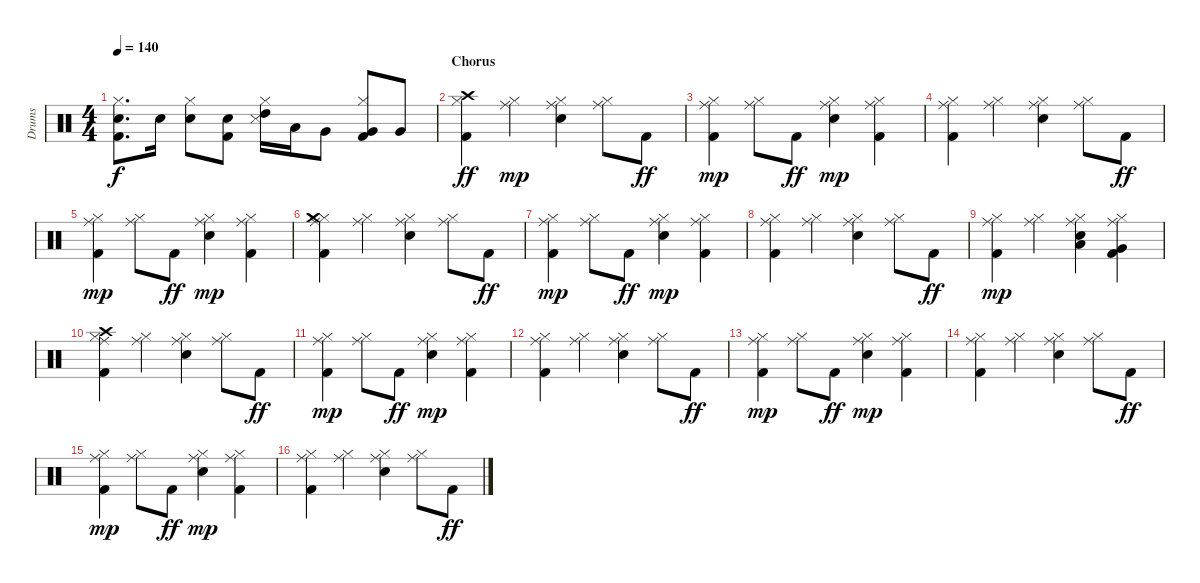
\track ("Drums" "Drums") {instrument percussion}
\staff {score}
\articulation defaults
\ts (4 4)
\tempo 140
\clef neutral
\ks c
("Kick (hit) 2" "Snare (hit) 2" "Hi-Hat (closed)").8{d dy f} "Snare (hit) 2".16 ("Snare (hit) 2" "Hi-Hat (closed)").8 ("Kick (hit) 2" "Snare (hit) 2").8 ("Snare (side stick) 3" "Hi-Hat (closed)" "High Tom (hit)").16 "Low Tom (hit)".16 "Very Low Tom (hit)".8 ("Kick (hit) 2" "Hi-Hat (closed)" "Very Low Tom (hit)").8 "Very Low Tom (hit)".8 |
\section ("" "Chorus")
("Kick (hit) 2" "Hi-Hat (closed)" "Crash high (hit)").4{dy ff} ("Hi-Hat (closed)" "Ride (middle)").4{dy mp} ("Snare (hit) 2" "Hi-Hat (closed)" "Ride (middle)").4 ("Hi-Hat (closed)" "Ride (middle)").8 "Kick (hit) 2".8{dy ff} |
("Kick (hit) 2" "Hi-Hat (closed)" "Ride (middle)").4{dy mp} ("Hi-Hat (closed)" "Ride (middle)").8 "Kick (hit) 2".8{dy ff} ("Snare (hit) 2" "Hi-Hat (closed)" "Ride (middle)").4{dy mp} ("Kick (hit) 2" "Hi-Hat (closed)" "Ride (middle)").4 |
("Kick (hit) 2" "Hi-Hat (closed)" "Ride (middle)").4 ("Hi-Hat (closed)" "Ride (middle)").4 ("Snare (hit) 2" "Hi-Hat (closed)" "Ride (middle)").4 ("Hi-Hat (closed)" "Ride (middle)").8 "Kick (hit) 2".8{dy ff} |
("Kick (hit) 2" "Hi-Hat (closed)" "Ride (middle)").4{dy mp} ("Hi-Hat (closed)" "Ride (middle)").8 "Kick (hit) 2".8{dy ff} ("Snare (hit) 2" "Hi-Hat (closed)" "Ride (middle)").4{dy mp} ("Kick (hit) 2" "Hi-Hat (closed)" "Ride (middle)").4 |
("Kick (hit) 2" "Hi-Hat (closed)" "Crash medium (hit)" "Ride (middle)").4 ("Hi-Hat (closed)" "Ride (middle)").4 ("Snare (hit) 2" "Hi-Hat (closed)" "Ride (middle)").4 ("Hi-Hat (closed)" "Ride (middle)").8 "Kick (hit) 2".8{dy ff} |
("Kick (hit) 2" "Hi-Hat (closed)" "Ride (middle)").4{dy mp} ("Hi-Hat (closed)" "Ride (middle)").8 "Kick (hit) 2".8{dy ff} ("Snare (hit) 2" "Hi-Hat (closed)" "Ride (middle)").4{dy mp} ("Kick (hit) 2" "Hi-Hat (closed)" "Ride (middle)").4 |
("Kick (hit) 2" "Hi-Hat (closed)" "Ride (middle)").4 ("Hi-Hat (closed)" "Ride (middle)").4 ("Snare (hit) 2" "Hi-Hat (closed)" "Ride (middle)").4 ("Hi-Hat (closed)" "Ride (middle)").8 "Kick (hit) 2".8{dy ff} |
("Kick (hit) 2" "Hi-Hat (closed)" "Ride (middle)").4{dy mp} ("Hi-Hat (closed)" "Ride (middle)").4 ("Snare (hit) 2" "Hi-Hat (closed)" "Low Tom (hit)" "Ride (middle)").4 ("Kick (hit) 2" "Hi-Hat (closed)" "Very Low Tom (hit)" "Ride (middle)").4 |
("Kick (hit) 2" "Hi-Hat (closed)" "Crash high (hit)" "Ride (middle)").4 ("Hi-Hat (closed)" "Ride (middle)").4 ("Snare (hit) 2" "Hi-Hat (closed)" "Ride (middle)").4 ("Hi-Hat (closed)" "Ride (middle)").8 "Kick (hit) 2".8{dy ff} |
("Kick (hit) 2" "Hi-Hat (closed)" "Ride (middle)").4{dy mp} ("Hi-Hat (closed)" "Ride (middle)").8 "Kick (hit) 2".8{dy ff} ("Snare (hit) 2" "Hi-Hat (closed)" "Ride (middle)").4{dy mp} ("Kick (hit) 2" "Hi-Hat (closed)" "Ride (middle)").4 |
("Kick (hit) 2" "Hi-Hat (closed)" "Ride (middle)").4 ("Hi-Hat (closed)" "Ride (middle)").4 ("Snare (hit) 2" "Hi-Hat (closed)" "Ride (middle)").4 ("Hi-Hat (closed)" "Ride (middle)").8 "Kick (hit) 2".8{dy ff} |
("Kick (hit) 2" "Hi-Hat (closed)" "Ride (middle)").4{dy mp} ("Hi-Hat (closed)" "Ride (middle)").8 "Kick (hit) 2".8{dy ff} ("Snare (hit) 2" "Hi-Hat (closed)" "Ride (middle)").4{dy mp} ("Kick (hit) 2" "Hi-Hat (closed)" "Ride (middle)").4 |
("Kick (hit) 2" "Hi-Hat (closed)" "Ride (middle)").4 ("Hi-Hat (closed)" "Ride (middle)").4 ("Snare (hit) 2" "Hi-Hat (closed)" "Ride (middle)").4 ("Hi-Hat (closed)" "Ride (middle)").8 "Kick (hit) 2".8{dy ff} |
("Kick (hit) 2" "Hi-Hat (closed)" "Ride (middle)").4{dy mp} ("Hi-Hat (closed)" "Ride (middle)").8 "Kick (hit) 2".8{dy ff} ("Snare (hit) 2" "Hi-Hat (closed)" "Ride (middle)").4{dy mp} ("Kick (hit) 2" "Hi-Hat (closed)" "Ride (middle)").4 |
("Kick (hit) 2" "Hi-Hat (closed)" "Ride (middle)").4 ("Hi-Hat (closed)" "Ride (middle)").4 ("Snare (hit) 2" "Hi-Hat (closed)" "Ride (middle)").4 ("Hi-Hat (closed)" "Ride (middle)").8 "Kick (hit) 2".8{dy ff}
